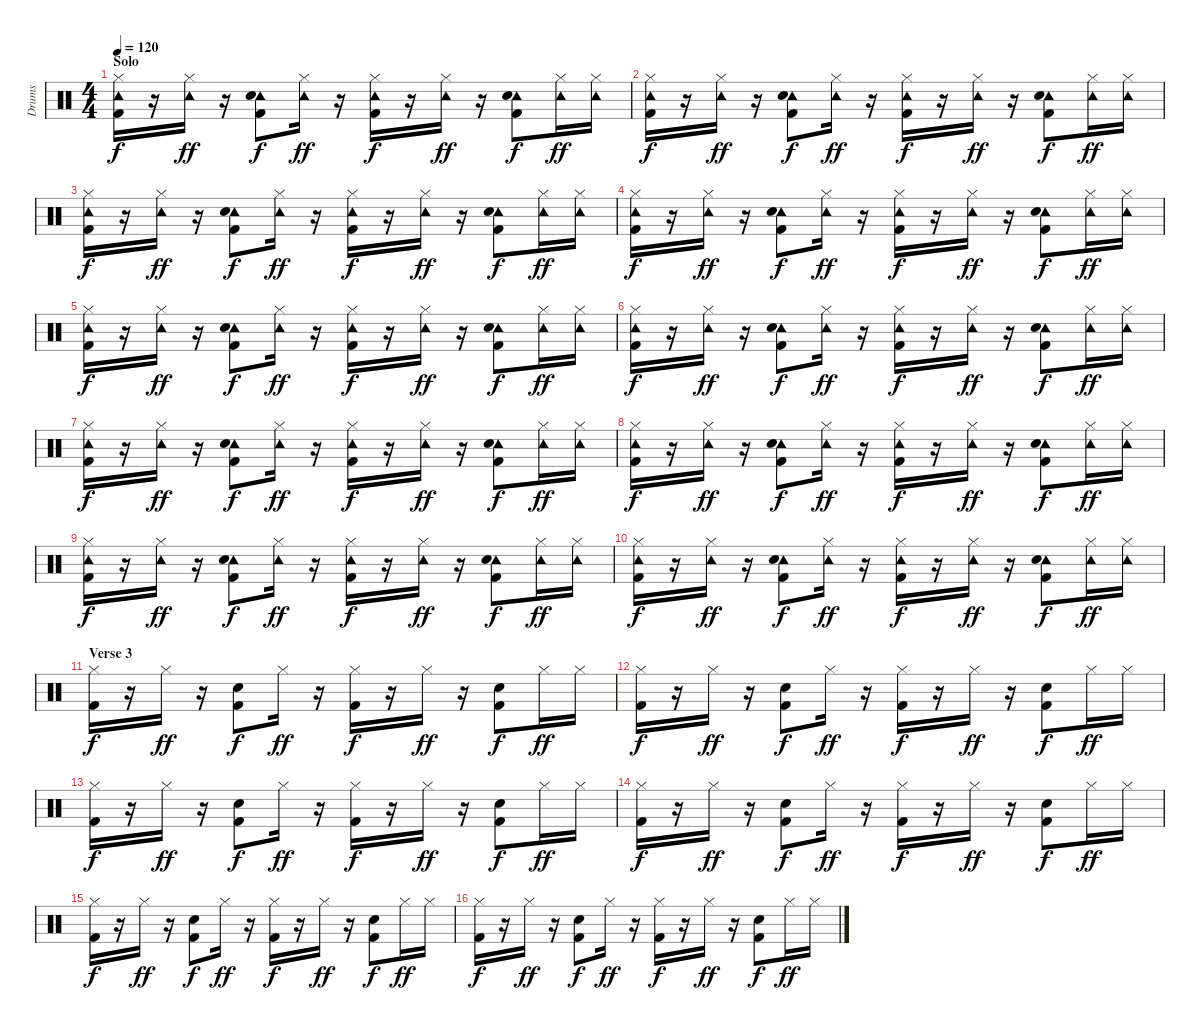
\track ("Drums" "Drums") {instrument percussion}
\staff {score}
\articulation defaults
\ts (4 4)
\section ("" "Solo")
\tempo 120
\clef neutral
\ks c
("Hi-Hat (closed)" "Tambourine (hit)" "Kick (hit) 2").16{dy f} r.16 ("Hi-Hat (closed)" "Tambourine (hit)").16{dy ff} r.16 ("Tambourine (hit)" "Electric Snare (hit)" "Kick (hit) 2").8{dy f} ("Hi-Hat (closed)" "Tambourine (hit)").16{dy ff} r.16 ("Hi-Hat (closed)" "Tambourine (hit)" "Kick (hit) 2").16{dy f} r.16 ("Hi-Hat (closed)" "Tambourine (hit)").16{dy ff} r.16 ("Tambourine (hit)" "Electric Snare (hit)" "Kick (hit) 2").8{dy f} ("Hi-Hat (closed)" "Tambourine (hit)").16{dy ff} ("Hi-Hat (closed)" "Tambourine (hit)").16 |
("Hi-Hat (closed)" "Tambourine (hit)" "Kick (hit) 2").16{dy f} r.16 ("Hi-Hat (closed)" "Tambourine (hit)").16{dy ff} r.16 ("Tambourine (hit)" "Electric Snare (hit)" "Kick (hit) 2").8{dy f} ("Hi-Hat (closed)" "Tambourine (hit)").16{dy ff} r.16 ("Hi-Hat (closed)" "Tambourine (hit)" "Kick (hit) 2").16{dy f} r.16 ("Hi-Hat (closed)" "Tambourine (hit)").16{dy ff} r.16 ("Tambourine (hit)" "Electric Snare (hit)" "Kick (hit) 2").8{dy f} ("Hi-Hat (closed)" "Tambourine (hit)").16{dy ff} ("Hi-Hat (closed)" "Tambourine (hit)").16 |
("Hi-Hat (closed)" "Tambourine (hit)" "Kick (hit) 2").16{dy f} r.16 ("Hi-Hat (closed)" "Tambourine (hit)").16{dy ff} r.16 ("Tambourine (hit)" "Electric Snare (hit)" "Kick (hit) 2").8{dy f} ("Hi-Hat (closed)" "Tambourine (hit)").16{dy ff} r.16 ("Hi-Hat (closed)" "Tambourine (hit)" "Kick (hit) 2").16{dy f} r.16 ("Hi-Hat (closed)" "Tambourine (hit)").16{dy ff} r.16 ("Tambourine (hit)" "Electric Snare (hit)" "Kick (hit) 2").8{dy f} ("Hi-Hat (closed)" "Tambourine (hit)").16{dy ff} ("Hi-Hat (closed)" "Tambourine (hit)").16 |
("Hi-Hat (closed)" "Tambourine (hit)" "Kick (hit) 2").16{dy f} r.16 ("Hi-Hat (closed)" "Tambourine (hit)").16{dy ff} r.16 ("Tambourine (hit)" "Electric Snare (hit)" "Kick (hit) 2").8{dy f} ("Hi-Hat (closed)" "Tambourine (hit)").16{dy ff} r.16 ("Hi-Hat (closed)" "Tambourine (hit)" "Kick (hit) 2").16{dy f} r.16 ("Hi-Hat (closed)" "Tambourine (hit)").16{dy ff} r.16 ("Tambourine (hit)" "Electric Snare (hit)" "Kick (hit) 2").8{dy f} ("Hi-Hat (closed)" "Tambourine (hit)").16{dy ff} ("Hi-Hat (closed)" "Tambourine (hit)").16 |
("Hi-Hat (closed)" "Tambourine (hit)" "Kick (hit) 2").16{dy f} r.16 ("Hi-Hat (closed)" "Tambourine (hit)").16{dy ff} r.16 ("Tambourine (hit)" "Electric Snare (hit)" "Kick (hit) 2").8{dy f} ("Hi-Hat (closed)" "Tambourine (hit)").16{dy ff} r.16 ("Hi-Hat (closed)" "Tambourine (hit)" "Kick (hit) 2").16{dy f} r.16 ("Hi-Hat (closed)" "Tambourine (hit)").16{dy ff} r.16 ("Tambourine (hit)" "Electric Snare (hit)" "Kick (hit) 2").8{dy f} ("Hi-Hat (closed)" "Tambourine (hit)").16{dy ff} ("Hi-Hat (closed)" "Tambourine (hit)").16 |
("Hi-Hat (closed)" "Tambourine (hit)" "Kick (hit) 2").16{dy f} r.16 ("Hi-Hat (closed)" "Tambourine (hit)").16{dy ff} r.16 ("Tambourine (hit)" "Electric Snare (hit)" "Kick (hit) 2").8{dy f} ("Hi-Hat (closed)" "Tambourine (hit)").16{dy ff} r.16 ("Hi-Hat (closed)" "Tambourine (hit)" "Kick (hit) 2").16{dy f} r.16 ("Hi-Hat (closed)" "Tambourine (hit)").16{dy ff} r.16 ("Tambourine (hit)" "Electric Snare (hit)" "Kick (hit) 2").8{dy f} ("Hi-Hat (closed)" "Tambourine (hit)").16{dy ff} ("Hi-Hat (closed)" "Tambourine (hit)").16 |
("Hi-Hat (closed)" "Tambourine (hit)" "Kick (hit) 2").16{dy f} r.16 ("Hi-Hat (closed)" "Tambourine (hit)").16{dy ff} r.16 ("Tambourine (hit)" "Electric Snare (hit)" "Kick (hit) 2").8{dy f} ("Hi-Hat (closed)" "Tambourine (hit)").16{dy ff} r.16 ("Hi-Hat (closed)" "Tambourine (hit)" "Kick (hit) 2").16{dy f} r.16 ("Hi-Hat (closed)" "Tambourine (hit)").16{dy ff} r.16 ("Tambourine (hit)" "Electric Snare (hit)" "Kick (hit) 2").8{dy f} ("Hi-Hat (closed)" "Tambourine (hit)").16{dy ff} ("Hi-Hat (closed)" "Tambourine (hit)").16 |
("Hi-Hat (closed)" "Tambourine (hit)" "Kick (hit) 2").16{dy f} r.16 ("Hi-Hat (closed)" "Tambourine (hit)").16{dy ff} r.16 ("Tambourine (hit)" "Electric Snare (hit)" "Kick (hit) 2").8{dy f} ("Hi-Hat (closed)" "Tambourine (hit)").16{dy ff} r.16 ("Hi-Hat (closed)" "Tambourine (hit)" "Kick (hit) 2").16{dy f} r.16 ("Hi-Hat (closed)" "Tambourine (hit)").16{dy ff} r.16 ("Tambourine (hit)" "Electric Snare (hit)" "Kick (hit) 2").8{dy f} ("Hi-Hat (closed)" "Tambourine (hit)").16{dy ff} ("Hi-Hat (closed)" "Tambourine (hit)").16 |
("Hi-Hat (closed)" "Tambourine (hit)" "Kick (hit) 2").16{dy f} r.16 ("Hi-Hat (closed)" "Tambourine (hit)").16{dy ff} r.16 ("Tambourine (hit)" "Electric Snare (hit)" "Kick (hit) 2").8{dy f} ("Hi-Hat (closed)" "Tambourine (hit)").16{dy ff} r.16 ("Hi-Hat (closed)" "Tambourine (hit)" "Kick (hit) 2").16{dy f} r.16 ("Hi-Hat (closed)" "Tambourine (hit)").16{dy ff} r.16 ("Tambourine (hit)" "Electric Snare (hit)" "Kick (hit) 2").8{dy f} ("Hi-Hat (closed)" "Tambourine (hit)").16{dy ff} ("Hi-Hat (closed)" "Tambourine (hit)").16 |
("Hi-Hat (closed)" "Tambourine (hit)" "Kick (hit) 2").16{dy f} r.16 ("Hi-Hat (closed)" "Tambourine (hit)").16{dy ff} r.16 ("Tambourine (hit)" "Electric Snare (hit)" "Kick (hit) 2").8{dy f} ("Hi-Hat (closed)" "Tambourine (hit)").16{dy ff} r.16 ("Hi-Hat (closed)" "Tambourine (hit)" "Kick (hit) 2").16{dy f} r.16 ("Hi-Hat (closed)" "Tambourine (hit)").16{dy ff} r.16 ("Tambourine (hit)" "Electric Snare (hit)" "Kick (hit) 2").8{dy f} ("Hi-Hat (closed)" "Tambourine (hit)").16{dy ff} ("Hi-Hat (closed)" "Tambourine (hit)").16 |
\section ("" "Verse 3")
("Hi-Hat (closed)" "Kick (hit) 2").16{dy f} r.16 "Hi-Hat (closed)".16{dy ff} r.16 ("Electric Snare (hit)" "Kick (hit) 2").8{dy f} "Hi-Hat (closed)".16{dy ff} r.16 ("Hi-Hat (closed)" "Kick (hit) 2").16{dy f} r.16 "Hi-Hat (closed)".16{dy ff} r.16 ("Electric Snare (hit)" "Kick (hit) 2").8{dy f} "Hi-Hat (closed)".16{dy ff} "Hi-Hat (closed)".16 |
("Hi-Hat (closed)" "Kick (hit) 2").16{dy f} r.16 "Hi-Hat (closed)".16{dy ff} r.16 ("Electric Snare (hit)" "Kick (hit) 2").8{dy f} "Hi-Hat (closed)".16{dy ff} r.16 ("Hi-Hat (closed)" "Kick (hit) 2").16{dy f} r.16 "Hi-Hat (closed)".16{dy ff} r.16 ("Electric Snare (hit)" "Kick (hit) 2").8{dy f} "Hi-Hat (closed)".16{dy ff} "Hi-Hat (closed)".16 |
("Hi-Hat (closed)" "Kick (hit) 2").16{dy f} r.16 "Hi-Hat (closed)".16{dy ff} r.16 ("Electric Snare (hit)" "Kick (hit) 2").8{dy f} "Hi-Hat (closed)".16{dy ff} r.16 ("Hi-Hat (closed)" "Kick (hit) 2").16{dy f} r.16 "Hi-Hat (closed)".16{dy ff} r.16 ("Electric Snare (hit)" "Kick (hit) 2").8{dy f} "Hi-Hat (closed)".16{dy ff} "Hi-Hat (closed)".16 |
("Hi-Hat (closed)" "Kick (hit) 2").16{dy f} r.16 "Hi-Hat (closed)".16{dy ff} r.16 ("Electric Snare (hit)" "Kick (hit) 2").8{dy f} "Hi-Hat (closed)".16{dy ff} r.16 ("Hi-Hat (closed)" "Kick (hit) 2").16{dy f} r.16 "Hi-Hat (closed)".16{dy ff} r.16 ("Electric Snare (hit)" "Kick (hit) 2").8{dy f} "Hi-Hat (closed)".16{dy ff} "Hi-Hat (closed)".16 |
("Hi-Hat (closed)" "Kick (hit) 2").16{dy f} r.16 "Hi-Hat (closed)".16{dy ff} r.16 ("Electric Snare (hit)" "Kick (hit) 2").8{dy f} "Hi-Hat (closed)".16{dy ff} r.16 ("Hi-Hat (closed)" "Kick (hit) 2").16{dy f} r.16 "Hi-Hat (closed)".16{dy ff} r.16 ("Electric Snare (hit)" "Kick (hit) 2").8{dy f} "Hi-Hat (closed)".16{dy ff} "Hi-Hat (closed)".16 |
("Hi-Hat (closed)" "Kick (hit) 2").16{dy f} r.16 "Hi-Hat (closed)".16{dy ff} r.16 ("Electric Snare (hit)" "Kick (hit) 2").8{dy f} "Hi-Hat (closed)".16{dy ff} r.16 ("Hi-Hat (closed)" "Kick (hit) 2").16{dy f} r.16 "Hi-Hat (closed)".16{dy ff} r.16 ("Electric Snare (hit)" "Kick (hit) 2").8{dy f} "Hi-Hat (closed)".16{dy ff} "Hi-Hat (closed)".16
